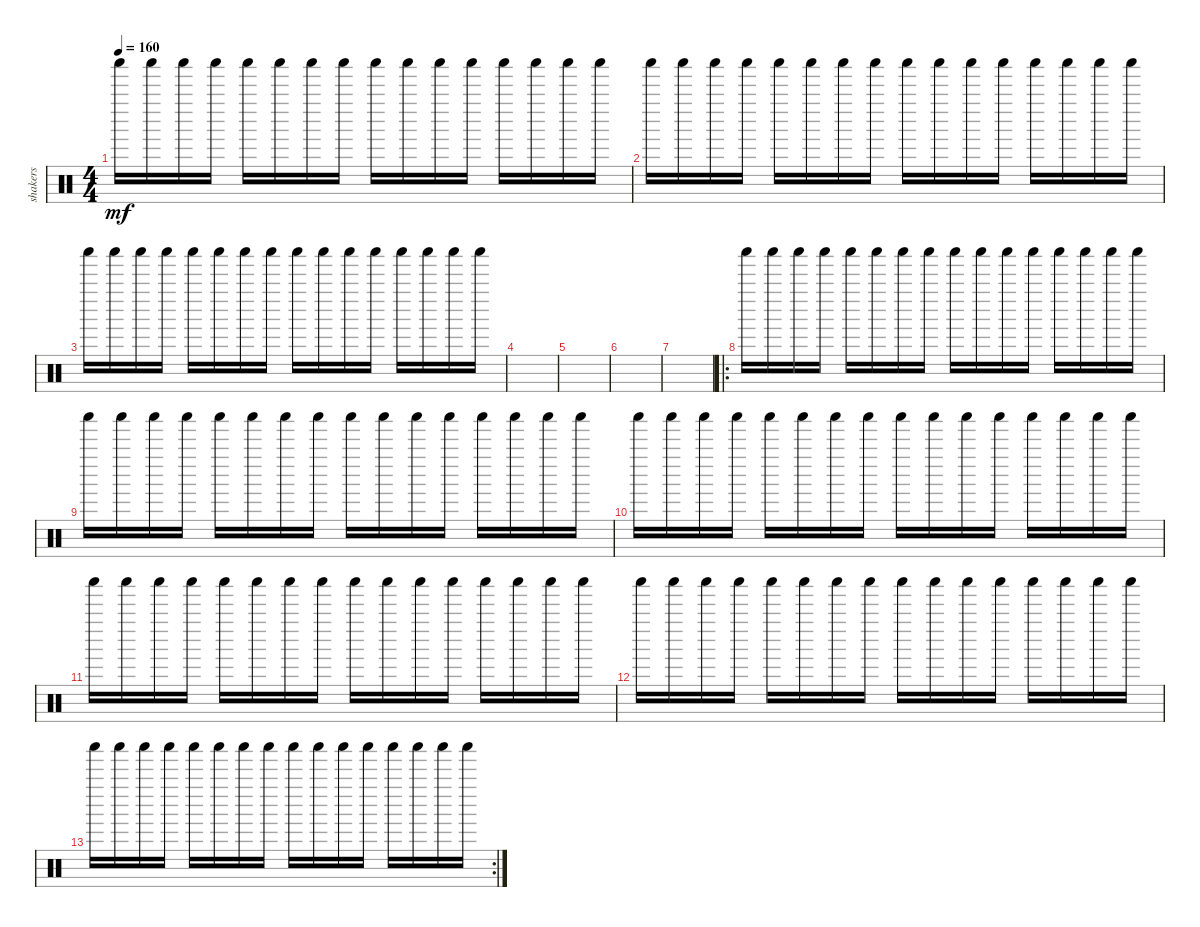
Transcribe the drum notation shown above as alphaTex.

\track ("shakers" "shakers") {instrument percussion}
\staff {score}
\articulation defaults
\ts (4 4)
\tempo 160
\clef neutral
\ks c "Shaker (hit)".16{dy mf} "Shaker (hit)".16 "Shaker (hit)".16 "Shaker (hit)".16 "Shaker (hit)".16 "Shaker (hit)".16 "Shaker (hit)".16 "Shaker (hit)".16 "Shaker (hit)".16 "Shaker (hit)".16 "Shaker (hit)".16 "Shaker (hit)".16 "Shaker (hit)".16 "Shaker (hit)".16 "Shaker (hit)".16 "Shaker (hit)".16
|
"Shaker (hit)".16 "Shaker (hit)".16 "Shaker (hit)".16 "Shaker (hit)".16 "Shaker (hit)".16 "Shaker (hit)".16 "Shaker (hit)".16 "Shaker (hit)".16 "Shaker (hit)".16 "Shaker (hit)".16 "Shaker (hit)".16 "Shaker (hit)".16 "Shaker (hit)".16 "Shaker (hit)".16 "Shaker (hit)".16 "Shaker (hit)".16 |
"Shaker (hit)".16 "Shaker (hit)".16 "Shaker (hit)".16 "Shaker (hit)".16 "Shaker (hit)".16 "Shaker (hit)".16 "Shaker (hit)".16 "Shaker (hit)".16 "Shaker (hit)".16 "Shaker (hit)".16 "Shaker (hit)".16 "Shaker (hit)".16 "Shaker (hit)".16 "Shaker (hit)".16 "Shaker (hit)".16 "Shaker (hit)".16 |
|
|
|
|
\ro "Shaker (hit)".16 "Shaker (hit)".16 "Shaker (hit)".16 "Shaker (hit)".16 "Shaker (hit)".16 "Shaker (hit)".16 "Shaker (hit)".16 "Shaker (hit)".16 "Shaker (hit)".16 "Shaker (hit)".16 "Shaker (hit)".16 "Shaker (hit)".16 "Shaker (hit)".16 "Shaker (hit)".16 "Shaker (hit)".16 "Shaker (hit)".16
|
"Shaker (hit)".16 "Shaker (hit)".16 "Shaker (hit)".16 "Shaker (hit)".16 "Shaker (hit)".16 "Shaker (hit)".16 "Shaker (hit)".16 "Shaker (hit)".16 "Shaker (hit)".16 "Shaker (hit)".16 "Shaker (hit)".16 "Shaker (hit)".16 "Shaker (hit)".16 "Shaker (hit)".16 "Shaker (hit)".16 "Shaker (hit)".16 |
"Shaker (hit)".16 "Shaker (hit)".16 "Shaker (hit)".16 "Shaker (hit)".16 "Shaker (hit)".16 "Shaker (hit)".16 "Shaker (hit)".16 "Shaker (hit)".16 "Shaker (hit)".16 "Shaker (hit)".16 "Shaker (hit)".16 "Shaker (hit)".16 "Shaker (hit)".16 "Shaker (hit)".16 "Shaker (hit)".16 "Shaker (hit)".16 |
"Shaker (hit)".16 "Shaker (hit)".16 "Shaker (hit)".16 "Shaker (hit)".16 "Shaker (hit)".16 "Shaker (hit)".16 "Shaker (hit)".16 "Shaker (hit)".16 "Shaker (hit)".16 "Shaker (hit)".16 "Shaker (hit)".16 "Shaker (hit)".16 "Shaker (hit)".16 "Shaker (hit)".16 "Shaker (hit)".16 "Shaker (hit)".16 |
"Shaker (hit)".16 "Shaker (hit)".16 "Shaker (hit)".16 "Shaker (hit)".16 "Shaker (hit)".16 "Shaker (hit)".16 "Shaker (hit)".16 "Shaker (hit)".16 "Shaker (hit)".16 "Shaker (hit)".16 "Shaker (hit)".16 "Shaker (hit)".16 "Shaker (hit)".16 "Shaker (hit)".16 "Shaker (hit)".16 "Shaker (hit)".16 |
\rc 2 "Shaker (hit)".16 "Shaker (hit)".16 "Shaker (hit)".16 "Shaker (hit)".16 "Shaker (hit)".16 "Shaker (hit)".16 "Shaker (hit)".16 "Shaker (hit)".16 "Shaker (hit)".16 "Shaker (hit)".16 "Shaker (hit)".16 "Shaker (hit)".16 "Shaker (hit)".16 "Shaker (hit)".16 "Shaker (hit)".16 "Shaker (hit)".16
